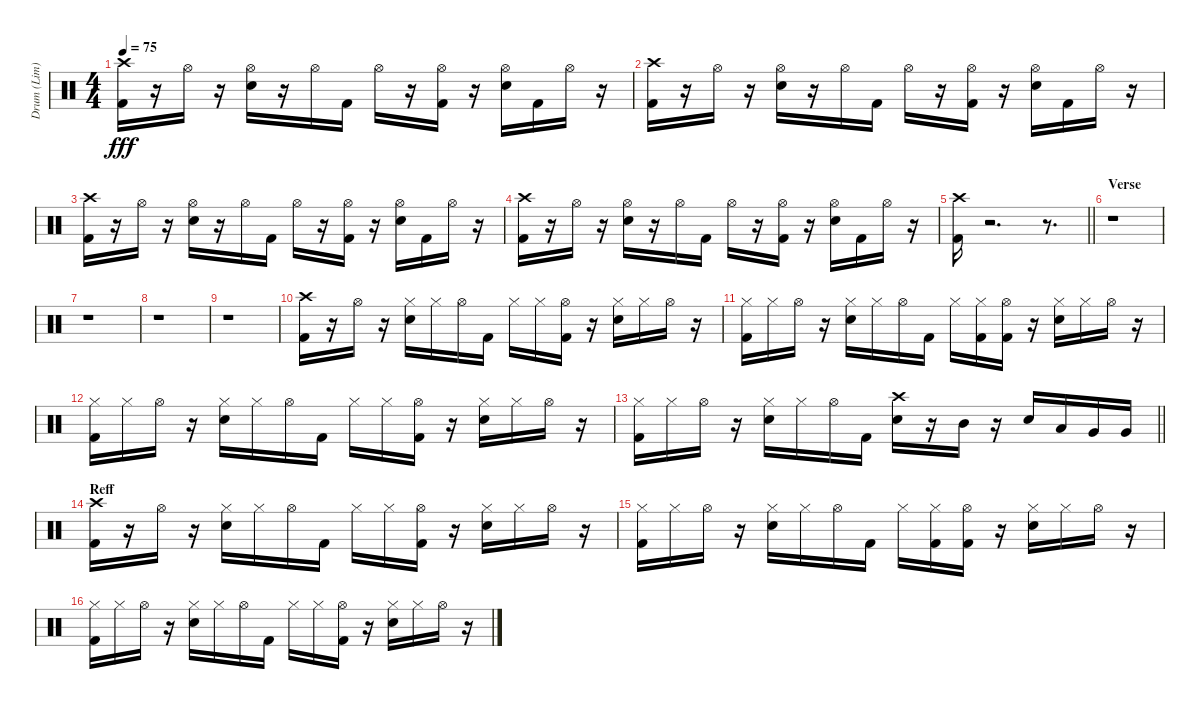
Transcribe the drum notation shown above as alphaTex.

\track ("Drum (Lim)" "Drum (Lim)") {instrument percussion}
\staff {score}
\articulation defaults
\ts (4 4)
\tempo 75
\clef neutral
\ks c
("Crash high (hit)" "Kick (hit) 2").16{dy fff} r.16 "Hi-Hat (open)".16 r.16 ("Electric Snare (hit)" "Hi-Hat (open)").16 r.16 "Hi-Hat (open)".16 "Kick (hit) 2".16 "Hi-Hat (open)".16 r.16 ("Kick (hit) 2" "Hi-Hat (open)").16 r.16 ("Electric Snare (hit)" "Hi-Hat (open)").16 "Kick (hit) 2".16 "Hi-Hat (open)".16 r.16 |
("Kick (hit) 2" "Crash high (hit)").16 r.16 "Hi-Hat (open)".16 r.16 ("Hi-Hat (open)" "Electric Snare (hit)").16 r.16 "Hi-Hat (open)".16 "Kick (hit) 2".16 "Hi-Hat (open)".16 r.16 ("Hi-Hat (open)" "Kick (hit) 2").16 r.16 ("Electric Snare (hit)" "Hi-Hat (open)").16 "Kick (hit) 2".16 "Hi-Hat (open)".16 r.16 |
("Kick (hit) 2" "Crash high (hit)").16 r.16 "Hi-Hat (open)".16 r.16 ("Electric Snare (hit)" "Hi-Hat (open)").16 r.16 "Hi-Hat (open)".16 "Kick (hit) 2".16 "Hi-Hat (open)".16 r.16 ("Hi-Hat (open)" "Kick (hit) 2").16 r.16 ("Electric Snare (hit)" "Hi-Hat (open)").16 "Kick (hit) 2".16 "Hi-Hat (open)".16 r.16 |
("Kick (hit) 2" "Crash high (hit)").16 r.16 "Hi-Hat (open)".16 r.16 ("Electric Snare (hit)" "Hi-Hat (open)").16 r.16 "Hi-Hat (open)".16 "Kick (hit) 2".16 "Hi-Hat (open)".16 r.16 ("Hi-Hat (open)" "Kick (hit) 2").16 r.16 ("Hi-Hat (open)" "Electric Snare (hit)").16 "Kick (hit) 2".16 "Hi-Hat (open)".16 r.16 |
\barLineRight lightlight
("Kick (hit) 2" "Crash high (hit)").16 r.2{d} r.8{d} |
\section ("" "Verse")
r.1 |
r.1 |
r.1 |
r.1 |
("Crash high (hit)" "Kick (hit) 2").16 r.16 "Hi-Hat (open)".16 r.16 ("Electric Snare (hit)" "Hi-Hat (closed)").16 "Hi-Hat (closed)".16 "Hi-Hat (open)".16 "Kick (hit) 2".16 "Hi-Hat (closed)".16 "Hi-Hat (closed)".16 ("Hi-Hat (open)" "Kick (hit) 2").16 r.16 ("Electric Snare (hit)" "Hi-Hat (closed)").16 "Hi-Hat (closed)".16 "Hi-Hat (open)".16 r.16 |
("Hi-Hat (closed)" "Kick (hit) 2").16 "Hi-Hat (closed)".16 "Hi-Hat (open)".16 r.16 ("Electric Snare (hit)" "Hi-Hat (closed)").16 "Hi-Hat (closed)".16 "Hi-Hat (open)".16 "Kick (hit) 2".16 "Hi-Hat (closed)".16 ("Hi-Hat (closed)" "Kick (hit) 2").16 ("Hi-Hat (open)" "Kick (hit) 2").16 r.16 ("Electric Snare (hit)" "Hi-Hat (closed)").16 "Hi-Hat (closed)".16 "Hi-Hat (open)".16 r.16 |
("Hi-Hat (closed)" "Kick (hit) 2").16 "Hi-Hat (closed)".16 "Hi-Hat (open)".16 r.16 ("Hi-Hat (closed)" "Electric Snare (hit)").16 "Hi-Hat (closed)".16 "Hi-Hat (open)".16 "Kick (hit) 2".16 "Hi-Hat (closed)".16 "Hi-Hat (closed)".16 ("Kick (hit) 2" "Hi-Hat (open)").16 r.16 ("Electric Snare (hit)" "Hi-Hat (closed)").16 "Hi-Hat (closed)".16 "Hi-Hat (open)".16 r.16 |
\barLineRight lightlight
("Kick (hit) 2" "Hi-Hat (closed)").16 "Hi-Hat (closed)".16 "Hi-Hat (open)".16 r.16 ("Electric Snare (hit)" "Hi-Hat (closed)").16 "Hi-Hat (closed)".16 "Hi-Hat (open)".16 "Kick (hit) 2".16 ("Crash high (hit)" "Electric Snare (hit)").16 r.16 "Mid Tom (hit)".16 r.16 "Electric Snare (hit)".16 "Low Tom (hit)".16 "Very Low Tom (hit)".16 "Very Low Tom (hit)".16 |
\section ("" "Reff")
("Kick (hit) 2" "Crash high (hit)").16 r.16 "Hi-Hat (open)".16 r.16 ("Hi-Hat (closed)" "Electric Snare (hit)").16 "Hi-Hat (closed)".16 "Hi-Hat (open)".16 "Kick (hit) 2".16 "Hi-Hat (closed)".16 "Hi-Hat (closed)".16 ("Hi-Hat (open)" "Kick (hit) 2").16 r.16 ("Electric Snare (hit)" "Hi-Hat (closed)").16 "Hi-Hat (closed)".16 "Hi-Hat (open)".16 r.16 |
("Hi-Hat (closed)" "Kick (hit) 2").16 "Hi-Hat (closed)".16 "Hi-Hat (open)".16 r.16 ("Electric Snare (hit)" "Hi-Hat (closed)").16 "Hi-Hat (closed)".16 "Hi-Hat (open)".16 "Kick (hit) 2".16 "Hi-Hat (closed)".16 ("Kick (hit) 2" "Hi-Hat (closed)").16 ("Kick (hit) 2" "Hi-Hat (open)").16 r.16 ("Hi-Hat (closed)" "Electric Snare (hit)").16 "Hi-Hat (closed)".16 "Hi-Hat (open)".16 r.16 |
("Kick (hit) 2" "Hi-Hat (closed)").16 "Hi-Hat (closed)".16 "Hi-Hat (open)".16 r.16 ("Electric Snare (hit)" "Hi-Hat (closed)").16 "Hi-Hat (closed)".16 "Hi-Hat (open)".16 "Kick (hit) 2".16 "Hi-Hat (closed)".16 "Hi-Hat (closed)".16 ("Hi-Hat (open)" "Kick (hit) 2").16 r.16 ("Hi-Hat (closed)" "Electric Snare (hit)").16 "Hi-Hat (closed)".16 "Hi-Hat (open)".16 r.16
